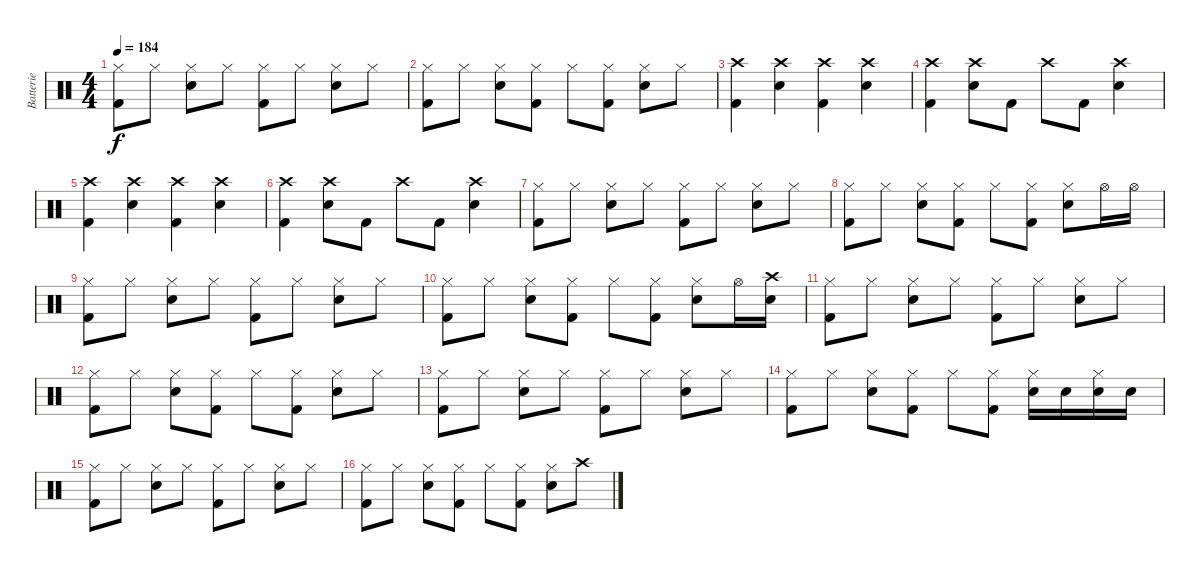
\track ("Batterie" "Batterie") {instrument percussion}
\staff {score}
\articulation defaults
\ts (4 4)
\tempo 184
\clef neutral
\ks c
("Hi-Hat (closed)" "Kick (hit) 2").8{dy f} "Hi-Hat (closed)".8 ("Hi-Hat (closed)" "Snare (hit) 2").8 "Hi-Hat (closed)".8 ("Hi-Hat (closed)" "Kick (hit) 2").8 "Hi-Hat (closed)".8 ("Hi-Hat (closed)" "Snare (hit) 2").8 "Hi-Hat (closed)".8 |
("Hi-Hat (closed)" "Kick (hit) 2").8 "Hi-Hat (closed)".8 ("Hi-Hat (closed)" "Snare (hit) 2").8 ("Hi-Hat (closed)" "Kick (hit) 2").8 "Hi-Hat (closed)".8 ("Hi-Hat (closed)" "Kick (hit) 2").8 ("Hi-Hat (closed)" "Snare (hit) 2").8 "Hi-Hat (closed)".8 |
("Crash high (hit)" "Kick (hit) 2").4 ("Crash high (hit)" "Snare (hit) 2").4 ("Crash high (hit)" "Kick (hit) 2").4 ("Crash high (hit)" "Snare (hit) 2").4 |
("Crash high (hit)" "Kick (hit) 2").4 ("Crash high (hit)" "Snare (hit) 2").8 "Kick (hit) 2".8 "Crash high (hit)".8 "Kick (hit) 2".8 ("Crash high (hit)" "Snare (hit) 2").4 |
("Crash high (hit)" "Kick (hit) 2").4 ("Crash high (hit)" "Snare (hit) 2").4 ("Crash high (hit)" "Kick (hit) 2").4 ("Crash high (hit)" "Snare (hit) 2").4 |
("Crash high (hit)" "Kick (hit) 2").4 ("Crash high (hit)" "Snare (hit) 2").8 "Kick (hit) 2".8 "Crash high (hit)".8 "Kick (hit) 2".8 ("Crash high (hit)" "Snare (hit) 2").4 |
("Hi-Hat (closed)" "Kick (hit) 2").8 "Hi-Hat (closed)".8 ("Hi-Hat (closed)" "Snare (hit) 2").8 "Hi-Hat (closed)".8 ("Hi-Hat (closed)" "Kick (hit) 2").8 "Hi-Hat (closed)".8 ("Hi-Hat (closed)" "Snare (hit) 2").8 "Hi-Hat (closed)".8 |
("Hi-Hat (closed)" "Kick (hit) 2").8 "Hi-Hat (closed)".8 ("Hi-Hat (closed)" "Snare (hit) 2").8 ("Hi-Hat (closed)" "Kick (hit) 2").8 "Hi-Hat (closed)".8 ("Hi-Hat (closed)" "Kick (hit) 2").8 ("Hi-Hat (closed)" "Snare (hit) 2").8 "Hi-Hat (open)".16 "Hi-Hat (open)".16 |
("Hi-Hat (closed)" "Kick (hit) 2").8 "Hi-Hat (closed)".8 ("Hi-Hat (closed)" "Snare (hit) 2").8 "Hi-Hat (closed)".8 ("Hi-Hat (closed)" "Kick (hit) 2").8 "Hi-Hat (closed)".8 ("Hi-Hat (closed)" "Snare (hit) 2").8 "Hi-Hat (closed)".8 |
("Hi-Hat (closed)" "Kick (hit) 2").8 "Hi-Hat (closed)".8 ("Hi-Hat (closed)" "Snare (hit) 2").8 ("Hi-Hat (closed)" "Kick (hit) 2").8 "Hi-Hat (closed)".8 ("Hi-Hat (closed)" "Kick (hit) 2").8 ("Hi-Hat (closed)" "Snare (hit) 2").8 "Hi-Hat (open)".16 ("Crash high (hit)" "Snare (hit) 2").16 |
("Hi-Hat (closed)" "Kick (hit) 2").8 "Hi-Hat (closed)".8 ("Hi-Hat (closed)" "Snare (hit) 2").8 "Hi-Hat (closed)".8 ("Hi-Hat (closed)" "Kick (hit) 2").8 "Hi-Hat (closed)".8 ("Hi-Hat (closed)" "Snare (hit) 2").8 "Hi-Hat (closed)".8 |
("Hi-Hat (closed)" "Kick (hit) 2").8 "Hi-Hat (closed)".8 ("Hi-Hat (closed)" "Snare (hit) 2").8 ("Hi-Hat (closed)" "Kick (hit) 2").8 "Hi-Hat (closed)".8 ("Hi-Hat (closed)" "Kick (hit) 2").8 ("Hi-Hat (closed)" "Snare (hit) 2").8 "Hi-Hat (closed)".8 |
("Hi-Hat (closed)" "Kick (hit) 2").8 "Hi-Hat (closed)".8 ("Hi-Hat (closed)" "Snare (hit) 2").8 "Hi-Hat (closed)".8 ("Hi-Hat (closed)" "Kick (hit) 2").8 "Hi-Hat (closed)".8 ("Hi-Hat (closed)" "Snare (hit) 2").8 "Hi-Hat (closed)".8 |
("Hi-Hat (closed)" "Kick (hit) 2").8 "Hi-Hat (closed)".8 ("Hi-Hat (closed)" "Snare (hit) 2").8 ("Hi-Hat (closed)" "Kick (hit) 2").8 "Hi-Hat (closed)".8 ("Hi-Hat (closed)" "Kick (hit) 2").8 ("Hi-Hat (closed)" "Snare (hit) 2").16 "Snare (hit) 2".16 ("Hi-Hat (closed)" "Snare (hit) 2").16 "Snare (hit) 2".16 |
("Hi-Hat (closed)" "Kick (hit) 2").8 "Hi-Hat (closed)".8 ("Hi-Hat (closed)" "Snare (hit) 2").8 "Hi-Hat (closed)".8 ("Hi-Hat (closed)" "Kick (hit) 2").8 "Hi-Hat (closed)".8 ("Hi-Hat (closed)" "Snare (hit) 2").8 "Hi-Hat (closed)".8 |
("Hi-Hat (closed)" "Kick (hit) 2").8 "Hi-Hat (closed)".8 ("Hi-Hat (closed)" "Snare (hit) 2").8 ("Hi-Hat (closed)" "Kick (hit) 2").8 "Hi-Hat (closed)".8 ("Hi-Hat (closed)" "Kick (hit) 2").8 ("Hi-Hat (closed)" "Snare (hit) 2").8 "Crash high (hit)".8
